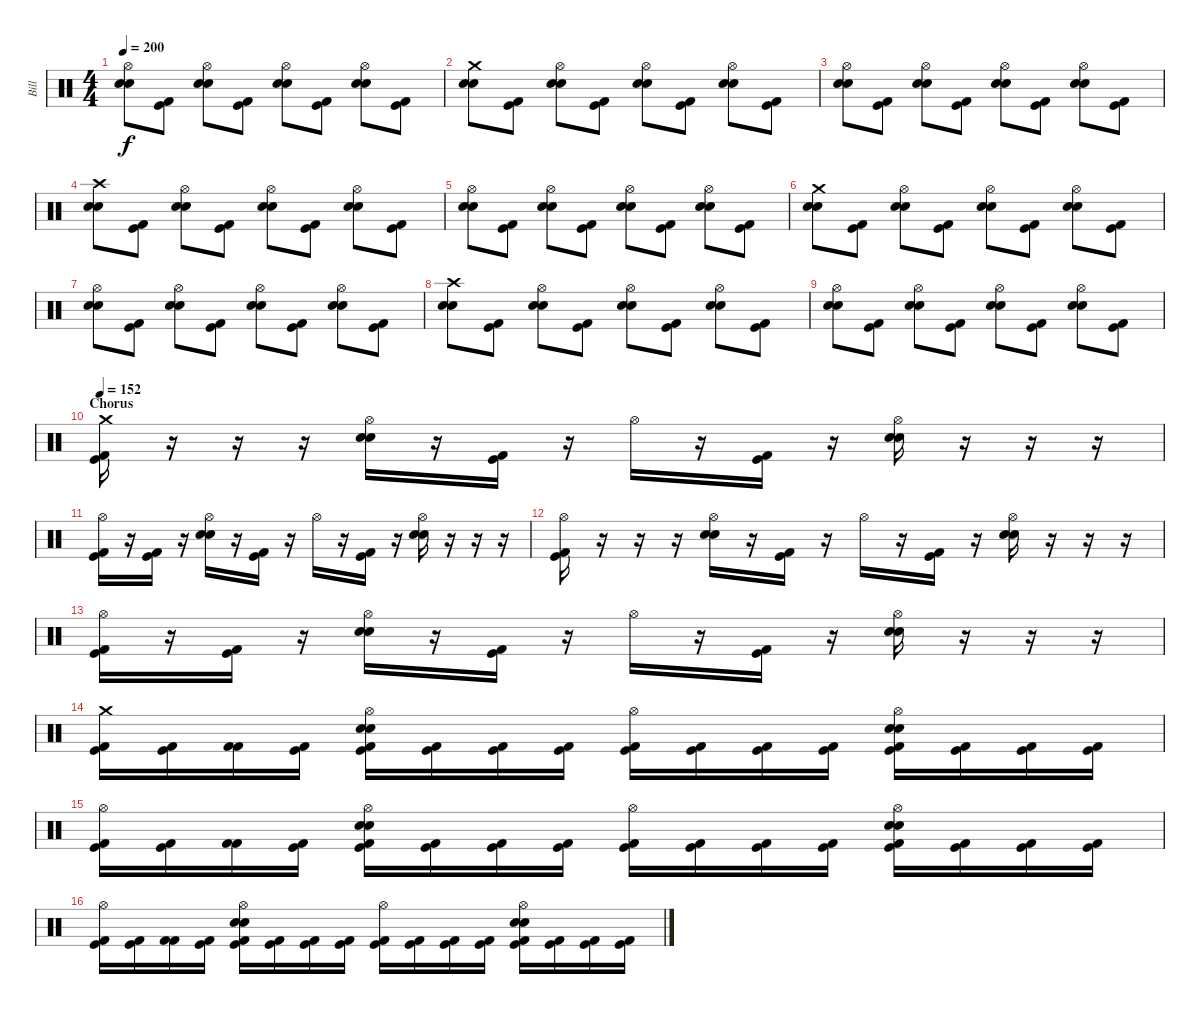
\track ("Bill" "Bill") {instrument percussion}
\staff {score}
\articulation defaults
\ts (4 4)
\tempo 200
\clef neutral
\ks c
("Hi-Hat (open)" "Snare (hit) 2" "Electric Snare (hit)").8{dy f} ("Kick (hit)" "Kick (hit) 2").8 ("Hi-Hat (open)" "Snare (hit) 2" "Electric Snare (hit)").8 ("Kick (hit)" "Kick (hit) 2").8 ("Hi-Hat (open)" "Snare (hit) 2" "Electric Snare (hit)").8 ("Kick (hit)" "Kick (hit) 2").8 ("Hi-Hat (open)" "Snare (hit) 2" "Electric Snare (hit)").8 ("Kick (hit)" "Kick (hit) 2").8 |
("Crash medium (hit)" "Snare (hit) 2" "Electric Snare (hit)").8 ("Kick (hit)" "Kick (hit) 2").8 ("Hi-Hat (open)" "Snare (hit) 2" "Electric Snare (hit)").8 ("Kick (hit)" "Kick (hit) 2").8 ("Hi-Hat (open)" "Snare (hit) 2" "Electric Snare (hit)").8 ("Kick (hit)" "Kick (hit) 2").8 ("Hi-Hat (open)" "Snare (hit) 2" "Electric Snare (hit)").8 ("Kick (hit)" "Kick (hit) 2").8 |
("Hi-Hat (open)" "Snare (hit) 2" "Electric Snare (hit)").8 ("Kick (hit)" "Kick (hit) 2").8 ("Hi-Hat (open)" "Snare (hit) 2" "Electric Snare (hit)").8 ("Kick (hit)" "Kick (hit) 2").8 ("Hi-Hat (open)" "Snare (hit) 2" "Electric Snare (hit)").8 ("Kick (hit)" "Kick (hit) 2").8 ("Hi-Hat (open)" "Snare (hit) 2" "Electric Snare (hit)").8 ("Kick (hit)" "Kick (hit) 2").8 |
("Crash high (hit)" "Snare (hit) 2" "Electric Snare (hit)").8 ("Kick (hit)" "Kick (hit) 2").8 ("Hi-Hat (open)" "Snare (hit) 2" "Electric Snare (hit)").8 ("Kick (hit)" "Kick (hit) 2").8 ("Hi-Hat (open)" "Snare (hit) 2" "Electric Snare (hit)").8 ("Kick (hit)" "Kick (hit) 2").8 ("Hi-Hat (open)" "Snare (hit) 2" "Electric Snare (hit)").8 ("Kick (hit)" "Kick (hit) 2").8 |
("Hi-Hat (open)" "Snare (hit) 2" "Electric Snare (hit)").8 ("Kick (hit)" "Kick (hit) 2").8 ("Hi-Hat (open)" "Snare (hit) 2" "Electric Snare (hit)").8 ("Kick (hit)" "Kick (hit) 2").8 ("Hi-Hat (open)" "Snare (hit) 2" "Electric Snare (hit)").8 ("Kick (hit)" "Kick (hit) 2").8 ("Hi-Hat (open)" "Snare (hit) 2" "Electric Snare (hit)").8 ("Kick (hit)" "Kick (hit) 2").8 |
("Crash medium (hit)" "Snare (hit) 2" "Electric Snare (hit)").8 ("Kick (hit)" "Kick (hit) 2").8 ("Hi-Hat (open)" "Snare (hit) 2" "Electric Snare (hit)").8 ("Kick (hit)" "Kick (hit) 2").8 ("Hi-Hat (open)" "Snare (hit) 2" "Electric Snare (hit)").8 ("Kick (hit)" "Kick (hit) 2").8 ("Hi-Hat (open)" "Snare (hit) 2" "Electric Snare (hit)").8 ("Kick (hit)" "Kick (hit) 2").8 |
("Hi-Hat (open)" "Snare (hit) 2" "Electric Snare (hit)").8 ("Kick (hit)" "Kick (hit) 2").8 ("Hi-Hat (open)" "Snare (hit) 2" "Electric Snare (hit)").8 ("Kick (hit)" "Kick (hit) 2").8 ("Hi-Hat (open)" "Snare (hit) 2" "Electric Snare (hit)").8 ("Kick (hit)" "Kick (hit) 2").8 ("Hi-Hat (open)" "Snare (hit) 2" "Electric Snare (hit)").8 ("Kick (hit)" "Kick (hit) 2").8 |
("Crash high (hit)" "Snare (hit) 2" "Electric Snare (hit)").8 ("Kick (hit)" "Kick (hit) 2").8 ("Hi-Hat (open)" "Snare (hit) 2" "Electric Snare (hit)").8 ("Kick (hit)" "Kick (hit) 2").8 ("Hi-Hat (open)" "Snare (hit) 2" "Electric Snare (hit)").8 ("Kick (hit)" "Kick (hit) 2").8 ("Hi-Hat (open)" "Snare (hit) 2" "Electric Snare (hit)").8 ("Kick (hit)" "Kick (hit) 2").8 |
("Hi-Hat (open)" "Snare (hit) 2" "Electric Snare (hit)").8 ("Kick (hit)" "Kick (hit) 2").8 ("Hi-Hat (open)" "Snare (hit) 2" "Electric Snare (hit)").8 ("Kick (hit)" "Kick (hit) 2").8 ("Hi-Hat (open)" "Snare (hit) 2" "Electric Snare (hit)").8 ("Kick (hit)" "Kick (hit) 2").8 ("Hi-Hat (open)" "Snare (hit) 2" "Electric Snare (hit)").8 ("Kick (hit)" "Kick (hit) 2").8 |
\section ("" "Chorus")
\tempo 152
("Crash medium (hit)" "Kick (hit)" "Kick (hit) 2").16 r.16 r.16 r.16 ("Hi-Hat (open)" "Snare (hit) 2" "Electric Snare (hit)").16 r.16 ("Kick (hit)" "Kick (hit) 2").16 r.16 "Hi-Hat (open)".16 r.16 ("Kick (hit)" "Kick (hit) 2").16 r.16 ("Hi-Hat (open)" "Snare (hit) 2" "Electric Snare (hit)").16 r.16 r.16 r.16 |
("Hi-Hat (open)" "Kick (hit)" "Kick (hit) 2").16 r.16 ("Kick (hit)" "Kick (hit) 2").16 r.16 ("Hi-Hat (open)" "Snare (hit) 2" "Electric Snare (hit)").16 r.16 ("Kick (hit)" "Kick (hit) 2").16 r.16 "Hi-Hat (open)".16 r.16 ("Kick (hit)" "Kick (hit) 2").16 r.16 ("Hi-Hat (open)" "Snare (hit) 2" "Electric Snare (hit)").16 r.16 r.16 r.16 |
("Hi-Hat (open)" "Kick (hit)" "Kick (hit) 2").16 r.16 r.16 r.16 ("Hi-Hat (open)" "Snare (hit) 2" "Electric Snare (hit)").16 r.16 ("Kick (hit)" "Kick (hit) 2").16 r.16 "Hi-Hat (open)".16 r.16 ("Kick (hit)" "Kick (hit) 2").16 r.16 ("Hi-Hat (open)" "Snare (hit) 2" "Electric Snare (hit)").16 r.16 r.16 r.16 |
("Hi-Hat (open)" "Kick (hit)" "Kick (hit) 2").16 r.16 ("Kick (hit)" "Kick (hit) 2").16 r.16 ("Hi-Hat (open)" "Snare (hit) 2" "Electric Snare (hit)").16 r.16 ("Kick (hit)" "Kick (hit) 2").16 r.16 "Hi-Hat (open)".16 r.16 ("Kick (hit)" "Kick (hit) 2").16 r.16 ("Hi-Hat (open)" "Snare (hit) 2" "Electric Snare (hit)").16 r.16 r.16 r.16 |
("Crash medium (hit)" "Kick (hit) 2" "Kick (hit)").16 ("Kick (hit) 2" "Kick (hit)").16 ("Kick (hit) 2" "Kick (hit) 2").16 ("Kick (hit) 2" "Kick (hit)").16 ("Hi-Hat (open)" "Snare (hit) 2" "Electric Snare (hit)" "Kick (hit) 2" "Kick (hit)").16 ("Kick (hit) 2" "Kick (hit)").16 ("Kick (hit) 2" "Kick (hit)").16 ("Kick (hit) 2" "Kick (hit)").16 ("Hi-Hat (open)" "Kick (hit) 2" "Kick (hit)").16 ("Kick (hit) 2" "Kick (hit)").16 ("Kick (hit) 2" "Kick (hit)").16 ("Kick (hit) 2" "Kick (hit)").16 ("Hi-Hat (open)" "Snare (hit) 2" "Electric Snare (hit)" "Kick (hit) 2" "Kick (hit)").16 ("Kick (hit) 2" "Kick (hit)").16 ("Kick (hit) 2" "Kick (hit)").16 ("Kick (hit) 2" "Kick (hit)").16 |
("Hi-Hat (open)" "Kick (hit) 2" "Kick (hit)").16 ("Kick (hit) 2" "Kick (hit)").16 ("Kick (hit) 2" "Kick (hit) 2").16 ("Kick (hit) 2" "Kick (hit)").16 ("Hi-Hat (open)" "Snare (hit) 2" "Electric Snare (hit)" "Kick (hit) 2" "Kick (hit)").16 ("Kick (hit) 2" "Kick (hit)").16 ("Kick (hit) 2" "Kick (hit)").16 ("Kick (hit) 2" "Kick (hit)").16 ("Hi-Hat (open)" "Kick (hit) 2" "Kick (hit)").16 ("Kick (hit) 2" "Kick (hit)").16 ("Kick (hit) 2" "Kick (hit)").16 ("Kick (hit) 2" "Kick (hit)").16 ("Hi-Hat (open)" "Snare (hit) 2" "Electric Snare (hit)" "Kick (hit) 2" "Kick (hit)").16 ("Kick (hit) 2" "Kick (hit)").16 ("Kick (hit) 2" "Kick (hit)").16 ("Kick (hit) 2" "Kick (hit)").16 |
("Hi-Hat (open)" "Kick (hit) 2" "Kick (hit)").16 ("Kick (hit) 2" "Kick (hit)").16 ("Kick (hit) 2" "Kick (hit) 2").16 ("Kick (hit) 2" "Kick (hit)").16 ("Hi-Hat (open)" "Snare (hit) 2" "Electric Snare (hit)" "Kick (hit) 2" "Kick (hit)").16 ("Kick (hit) 2" "Kick (hit)").16 ("Kick (hit) 2" "Kick (hit)").16 ("Kick (hit) 2" "Kick (hit)").16 ("Hi-Hat (open)" "Kick (hit) 2" "Kick (hit)").16 ("Kick (hit) 2" "Kick (hit)").16 ("Kick (hit) 2" "Kick (hit)").16 ("Kick (hit) 2" "Kick (hit)").16 ("Hi-Hat (open)" "Snare (hit) 2" "Electric Snare (hit)" "Kick (hit) 2" "Kick (hit)").16 ("Kick (hit) 2" "Kick (hit)").16 ("Kick (hit) 2" "Kick (hit)").16 ("Kick (hit) 2" "Kick (hit)").16
